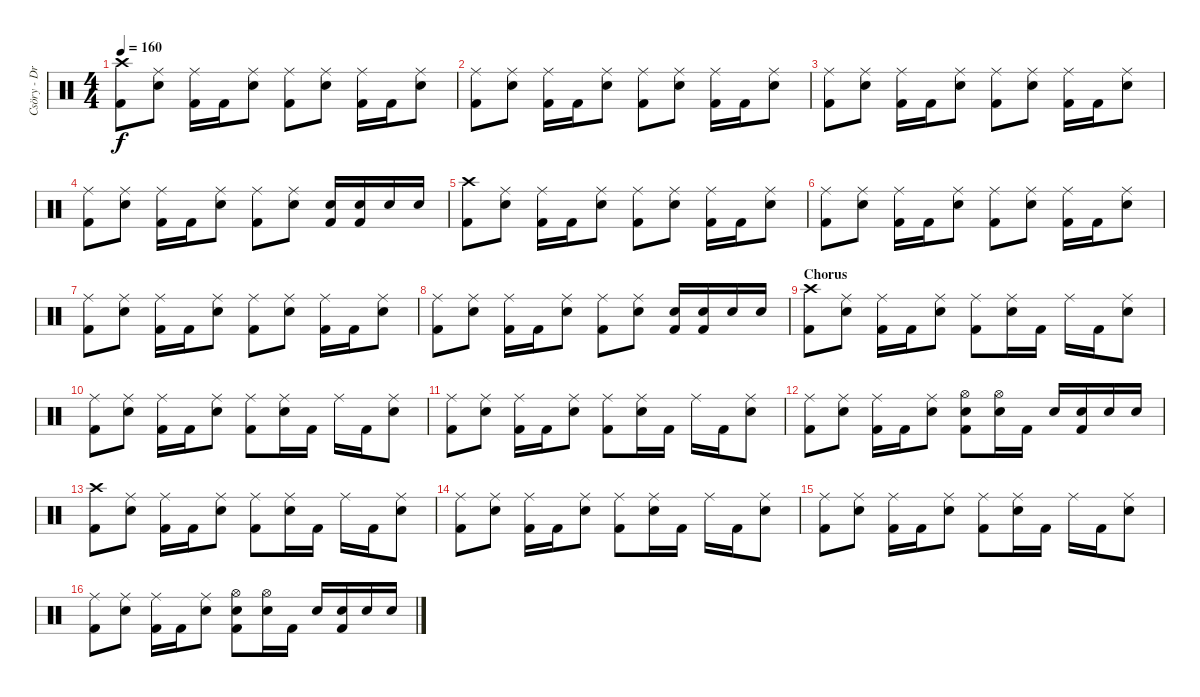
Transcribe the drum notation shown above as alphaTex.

\track ("Csöry - DrumZ" "Csöry - Dr") {instrument percussion}
\staff {score}
\articulation defaults
\ts (4 4)
\tempo 160
\clef neutral
\ks c
("Crash high (hit)" "Kick (hit) 2").8{dy f} ("Ride (middle)" "Snare (hit) 2").8 ("Ride (middle)" "Kick (hit) 2").16 "Kick (hit) 2".16 ("Ride (middle)" "Snare (hit) 2").8 ("Ride (middle)" "Kick (hit) 2").8 ("Ride (middle)" "Snare (hit) 2").8 ("Ride (middle)" "Kick (hit) 2").16 "Kick (hit) 2".16 ("Ride (middle)" "Snare (hit) 2").8 |
("Ride (middle)" "Kick (hit) 2").8 ("Ride (middle)" "Snare (hit) 2").8 ("Ride (middle)" "Kick (hit) 2").16 "Kick (hit) 2".16 ("Ride (middle)" "Snare (hit) 2").8 ("Ride (middle)" "Kick (hit) 2").8 ("Ride (middle)" "Snare (hit) 2").8 ("Ride (middle)" "Kick (hit) 2").16 "Kick (hit) 2".16 ("Ride (middle)" "Snare (hit) 2").8 |
("Ride (middle)" "Kick (hit) 2").8 ("Ride (middle)" "Snare (hit) 2").8 ("Ride (middle)" "Kick (hit) 2").16 "Kick (hit) 2".16 ("Ride (middle)" "Snare (hit) 2").8 ("Ride (middle)" "Kick (hit) 2").8 ("Ride (middle)" "Snare (hit) 2").8 ("Ride (middle)" "Kick (hit) 2").16 "Kick (hit) 2".16 ("Ride (middle)" "Snare (hit) 2").8 |
("Ride (middle)" "Kick (hit) 2").8 ("Ride (middle)" "Snare (hit) 2").8 ("Ride (middle)" "Kick (hit) 2").16 "Kick (hit) 2".16 ("Ride (middle)" "Snare (hit) 2").8 ("Ride (middle)" "Kick (hit) 2").8 ("Ride (middle)" "Snare (hit) 2").8 ("Snare (hit) 2" "Kick (hit) 2").16 ("Snare (hit) 2" "Kick (hit) 2").16 "Snare (hit) 2".16 "Snare (hit) 2".16 |
("Crash high (hit)" "Kick (hit) 2").8 ("Ride (middle)" "Snare (hit) 2").8 ("Ride (middle)" "Kick (hit) 2").16 "Kick (hit) 2".16 ("Ride (middle)" "Snare (hit) 2").8 ("Ride (middle)" "Kick (hit) 2").8 ("Ride (middle)" "Snare (hit) 2").8 ("Ride (middle)" "Kick (hit) 2").16 "Kick (hit) 2".16 ("Ride (middle)" "Snare (hit) 2").8 |
("Ride (middle)" "Kick (hit) 2").8 ("Ride (middle)" "Snare (hit) 2").8 ("Ride (middle)" "Kick (hit) 2").16 "Kick (hit) 2".16 ("Ride (middle)" "Snare (hit) 2").8 ("Ride (middle)" "Kick (hit) 2").8 ("Ride (middle)" "Snare (hit) 2").8 ("Ride (middle)" "Kick (hit) 2").16 "Kick (hit) 2".16 ("Ride (middle)" "Snare (hit) 2").8 |
("Ride (middle)" "Kick (hit) 2").8 ("Ride (middle)" "Snare (hit) 2").8 ("Ride (middle)" "Kick (hit) 2").16 "Kick (hit) 2".16 ("Ride (middle)" "Snare (hit) 2").8 ("Ride (middle)" "Kick (hit) 2").8 ("Ride (middle)" "Snare (hit) 2").8 ("Ride (middle)" "Kick (hit) 2").16 "Kick (hit) 2".16 ("Ride (middle)" "Snare (hit) 2").8 |
("Ride (middle)" "Kick (hit) 2").8 ("Ride (middle)" "Snare (hit) 2").8 ("Ride (middle)" "Kick (hit) 2").16 "Kick (hit) 2".16 ("Ride (middle)" "Snare (hit) 2").8 ("Ride (middle)" "Kick (hit) 2").8 ("Ride (middle)" "Snare (hit) 2").8 ("Snare (hit) 2" "Kick (hit) 2").16 ("Snare (hit) 2" "Kick (hit) 2").16 "Snare (hit) 2".16 "Snare (hit) 2".16 |
\section ("" "Chorus")
("Crash high (hit)" "Kick (hit) 2").8 ("Ride (middle)" "Snare (hit) 2").8 ("Ride (middle)" "Kick (hit) 2").16 "Kick (hit) 2".16 ("Ride (middle)" "Snare (hit) 2").8 ("Ride (middle)" "Kick (hit) 2").8 ("Ride (middle)" "Snare (hit) 2").16 "Kick (hit) 2".16 "Ride (middle)".16 "Kick (hit) 2".16 ("Ride (middle)" "Snare (hit) 2").8 |
("Ride (middle)" "Kick (hit) 2").8 ("Ride (middle)" "Snare (hit) 2").8 ("Ride (middle)" "Kick (hit) 2").16 "Kick (hit) 2".16 ("Ride (middle)" "Snare (hit) 2").8 ("Ride (middle)" "Kick (hit) 2").8 ("Ride (middle)" "Snare (hit) 2").16 "Kick (hit) 2".16 "Ride (middle)".16 "Kick (hit) 2".16 ("Ride (middle)" "Snare (hit) 2").8 |
("Ride (middle)" "Kick (hit) 2").8 ("Ride (middle)" "Snare (hit) 2").8 ("Ride (middle)" "Kick (hit) 2").16 "Kick (hit) 2".16 ("Ride (middle)" "Snare (hit) 2").8 ("Ride (middle)" "Kick (hit) 2").8 ("Ride (middle)" "Snare (hit) 2").16 "Kick (hit) 2".16 "Ride (middle)".16 "Kick (hit) 2".16 ("Ride (middle)" "Snare (hit) 2").8 |
("Ride (middle)" "Kick (hit) 2").8 ("Ride (middle)" "Snare (hit) 2").8 ("Ride (middle)" "Kick (hit) 2").16 "Kick (hit) 2".16 ("Ride (middle)" "Snare (hit) 2").8 ("Hi-Hat (open)" "Snare (hit) 2" "Kick (hit) 2").8 ("Hi-Hat (open)" "Snare (hit) 2").16 "Kick (hit) 2".16 "Snare (hit) 2".16 ("Snare (hit) 2" "Kick (hit) 2").16 "Snare (hit) 2".16 "Snare (hit) 2".16 |
("Crash high (hit)" "Kick (hit) 2").8 ("Ride (middle)" "Snare (hit) 2").8 ("Ride (middle)" "Kick (hit) 2").16 "Kick (hit) 2".16 ("Ride (middle)" "Snare (hit) 2").8 ("Ride (middle)" "Kick (hit) 2").8 ("Ride (middle)" "Snare (hit) 2").16 "Kick (hit) 2".16 "Ride (middle)".16 "Kick (hit) 2".16 ("Ride (middle)" "Snare (hit) 2").8 |
("Ride (middle)" "Kick (hit) 2").8 ("Ride (middle)" "Snare (hit) 2").8 ("Ride (middle)" "Kick (hit) 2").16 "Kick (hit) 2".16 ("Ride (middle)" "Snare (hit) 2").8 ("Ride (middle)" "Kick (hit) 2").8 ("Ride (middle)" "Snare (hit) 2").16 "Kick (hit) 2".16 "Ride (middle)".16 "Kick (hit) 2".16 ("Ride (middle)" "Snare (hit) 2").8 |
("Ride (middle)" "Kick (hit) 2").8 ("Ride (middle)" "Snare (hit) 2").8 ("Ride (middle)" "Kick (hit) 2").16 "Kick (hit) 2".16 ("Ride (middle)" "Snare (hit) 2").8 ("Ride (middle)" "Kick (hit) 2").8 ("Ride (middle)" "Snare (hit) 2").16 "Kick (hit) 2".16 "Ride (middle)".16 "Kick (hit) 2".16 ("Ride (middle)" "Snare (hit) 2").8 |
("Ride (middle)" "Kick (hit) 2").8 ("Ride (middle)" "Snare (hit) 2").8 ("Ride (middle)" "Kick (hit) 2").16 "Kick (hit) 2".16 ("Ride (middle)" "Snare (hit) 2").8 ("Hi-Hat (open)" "Snare (hit) 2" "Kick (hit) 2").8 ("Hi-Hat (open)" "Snare (hit) 2").16 "Kick (hit) 2".16 "Snare (hit) 2".16 ("Snare (hit) 2" "Kick (hit) 2").16 "Snare (hit) 2".16 "Snare (hit) 2".16
